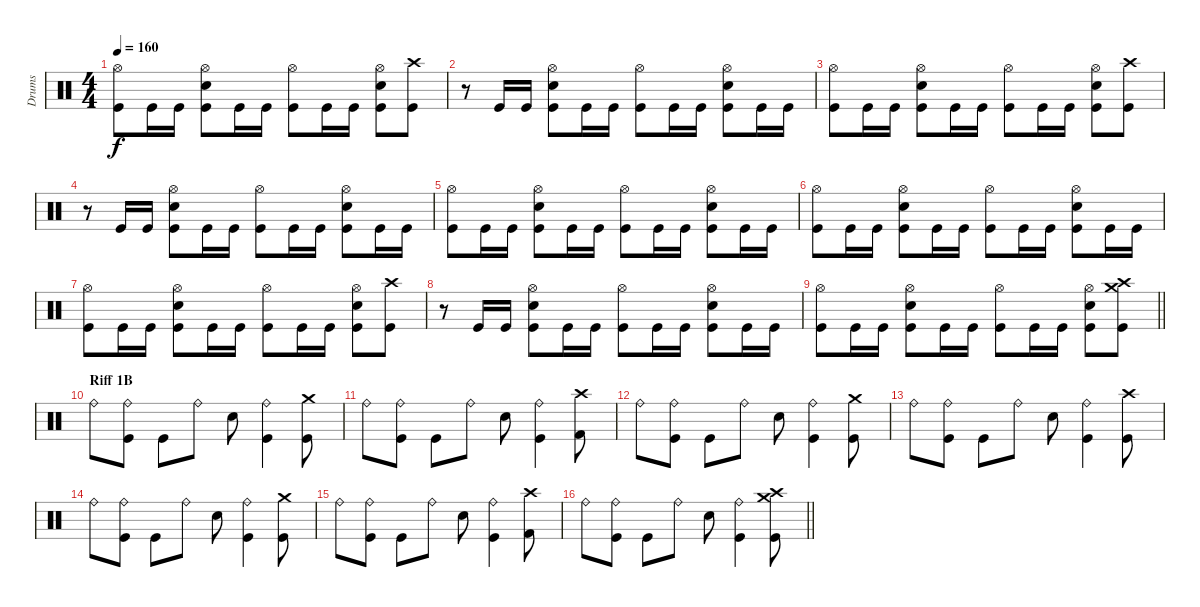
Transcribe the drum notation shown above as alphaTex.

\track ("Drums" "Drums") {instrument percussion}
\staff {score}
\articulation defaults
\ts (4 4)
\tempo 160
\clef neutral
\ks c
("Hi-Hat (open)" "Kick (hit)").8{dy f} "Kick (hit)".16 "Kick (hit)".16 ("Hi-Hat (open)" "Electric Snare (hit)" "Kick (hit)").8 "Kick (hit)".16 "Kick (hit)".16 ("Hi-Hat (open)" "Kick (hit)").8 "Kick (hit)".16 "Kick (hit)".16 ("Hi-Hat (open)" "Electric Snare (hit)" "Kick (hit)").8 ("Crash high (hit)" "Kick (hit)").8 |
r.8 "Kick (hit)".16 "Kick (hit)".16 ("Hi-Hat (open)" "Electric Snare (hit)" "Kick (hit)").8 "Kick (hit)".16 "Kick (hit)".16 ("Hi-Hat (open)" "Kick (hit)").8 "Kick (hit)".16 "Kick (hit)".16 ("Hi-Hat (open)" "Electric Snare (hit)" "Kick (hit)").8 "Kick (hit)".16 "Kick (hit)".16 |
("Hi-Hat (open)" "Kick (hit)").8 "Kick (hit)".16 "Kick (hit)".16 ("Hi-Hat (open)" "Electric Snare (hit)" "Kick (hit)").8 "Kick (hit)".16 "Kick (hit)".16 ("Hi-Hat (open)" "Kick (hit)").8 "Kick (hit)".16 "Kick (hit)".16 ("Hi-Hat (open)" "Electric Snare (hit)" "Kick (hit)").8 ("Crash high (hit)" "Kick (hit)").8 |
r.8 "Kick (hit)".16 "Kick (hit)".16 ("Hi-Hat (open)" "Electric Snare (hit)" "Kick (hit)").8 "Kick (hit)".16 "Kick (hit)".16 ("Hi-Hat (open)" "Kick (hit)").8 "Kick (hit)".16 "Kick (hit)".16 ("Hi-Hat (open)" "Electric Snare (hit)" "Kick (hit)").8 "Kick (hit)".16 "Kick (hit)".16 |
("Hi-Hat (open)" "Kick (hit)").8 "Kick (hit)".16 "Kick (hit)".16 ("Hi-Hat (open)" "Electric Snare (hit)" "Kick (hit)").8 "Kick (hit)".16 "Kick (hit)".16 ("Hi-Hat (open)" "Kick (hit)").8 "Kick (hit)".16 "Kick (hit)".16 ("Hi-Hat (open)" "Electric Snare (hit)" "Kick (hit)").8 "Kick (hit)".16 "Kick (hit)".16 |
("Hi-Hat (open)" "Kick (hit)").8 "Kick (hit)".16 "Kick (hit)".16 ("Hi-Hat (open)" "Electric Snare (hit)" "Kick (hit)").8 "Kick (hit)".16 "Kick (hit)".16 ("Hi-Hat (open)" "Kick (hit)").8 "Kick (hit)".16 "Kick (hit)".16 ("Hi-Hat (open)" "Electric Snare (hit)" "Kick (hit)").8 "Kick (hit)".16 "Kick (hit)".16 |
("Hi-Hat (open)" "Kick (hit)").8 "Kick (hit)".16 "Kick (hit)".16 ("Hi-Hat (open)" "Electric Snare (hit)" "Kick (hit)").8 "Kick (hit)".16 "Kick (hit)".16 ("Hi-Hat (open)" "Kick (hit)").8 "Kick (hit)".16 "Kick (hit)".16 ("Hi-Hat (open)" "Electric Snare (hit)" "Kick (hit)").8 ("Crash high (hit)" "Kick (hit)").8 |
r.8 "Kick (hit)".16 "Kick (hit)".16 ("Hi-Hat (open)" "Electric Snare (hit)" "Kick (hit)").8 "Kick (hit)".16 "Kick (hit)".16 ("Hi-Hat (open)" "Kick (hit)").8 "Kick (hit)".16 "Kick (hit)".16 ("Hi-Hat (open)" "Electric Snare (hit)" "Kick (hit)").8 "Kick (hit)".16 "Kick (hit)".16 |
\barLineRight lightlight
("Hi-Hat (open)" "Kick (hit)").8 "Kick (hit)".16 "Kick (hit)".16 ("Hi-Hat (open)" "Electric Snare (hit)" "Kick (hit)").8 "Kick (hit)".16 "Kick (hit)".16 ("Hi-Hat (open)" "Kick (hit)").8 "Kick (hit)".16 "Kick (hit)".16 ("Hi-Hat (open)" "Electric Snare (hit)" "Kick (hit)").8 ("Crash high (hit)" "Crash medium (hit)" "Kick (hit)").8 |
\section ("" "Riff 1B")
"Ride (bell)".8 ("Kick (hit)" "Ride (bell)").8 "Kick (hit)".8 "Ride (bell)".8 "Electric Snare (hit)".8 ("Kick (hit)" "Ride (bell)").4 ("Kick (hit)" "Crash medium (hit)").8 |
"Ride (bell)".8 ("Kick (hit)" "Ride (bell)").8 "Kick (hit)".8 "Ride (bell)".8 "Electric Snare (hit)".8 ("Kick (hit)" "Ride (bell)").4 ("Kick (hit) 2" "Crash high (hit)").8 |
"Ride (bell)".8 ("Kick (hit)" "Ride (bell)").8 "Kick (hit)".8 "Ride (bell)".8 "Electric Snare (hit)".8 ("Kick (hit)" "Ride (bell)").4 ("Kick (hit)" "Crash medium (hit)").8 |
"Ride (bell)".8 ("Kick (hit)" "Ride (bell)").8 "Kick (hit)".8 "Ride (bell)".8 "Electric Snare (hit)".8 ("Kick (hit)" "Ride (bell)").4 ("Kick (hit)" "Crash high (hit)").8 |
"Ride (bell)".8 ("Kick (hit)" "Ride (bell)").8 "Kick (hit)".8 "Ride (bell)".8 "Electric Snare (hit)".8 ("Kick (hit)" "Ride (bell)").4 ("Kick (hit)" "Crash medium (hit)").8 |
"Ride (bell)".8 ("Kick (hit)" "Ride (bell)").8 "Kick (hit)".8 "Ride (bell)".8 "Electric Snare (hit)".8 ("Kick (hit)" "Ride (bell)").4 ("Kick (hit) 2" "Crash high (hit)").8 |
\barLineRight lightlight "Ride (bell)".8
("Kick (hit)" "Ride (bell)").8 "Kick (hit)".8 "Ride (bell)".8 "Electric Snare (hit)".8 ("Kick (hit)" "Ride (bell)").4 ("Kick (hit)" "Crash high (hit)" "Crash medium (hit)").8
